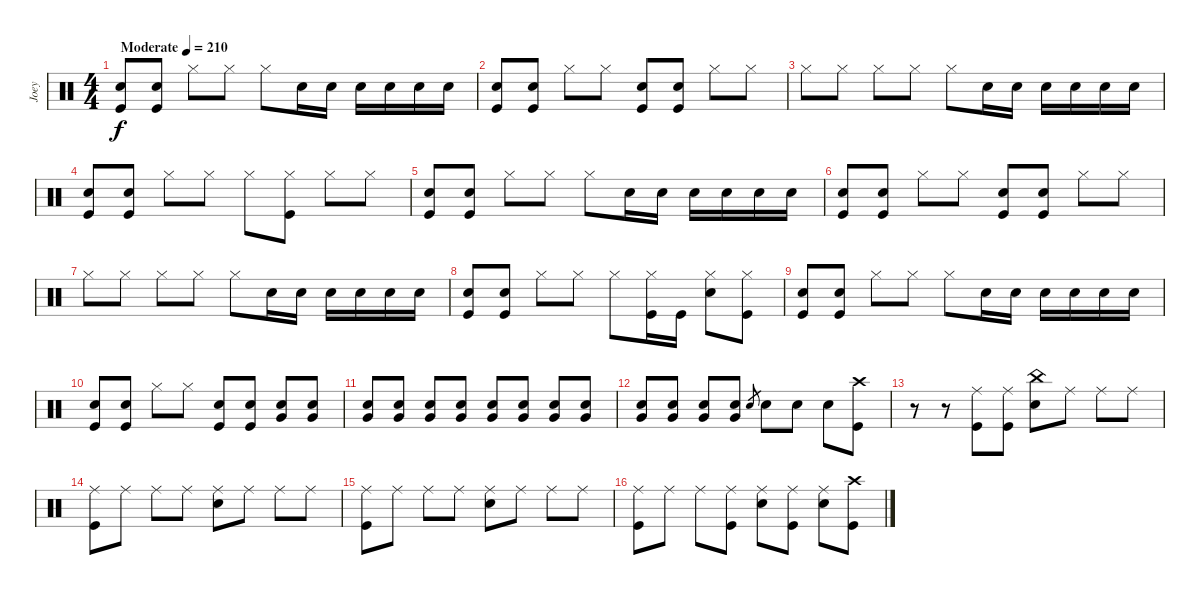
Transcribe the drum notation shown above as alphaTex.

\track ("Joey" "Joey") {instrument percussion}
\staff {score}
\articulation defaults
\ts (4 4)
\tempo (210 "Moderate")
\clef neutral
\ks c
("Snare (hit) 2" "Kick (hit)").8{dy f} ("Kick (hit)" "Snare (hit) 2").8 "Hi-Hat (closed)".8 "Hi-Hat (closed)".8 "Hi-Hat (closed)".8 "Snare (hit) 2".16 "Snare (hit) 2".16 "Snare (hit) 2".16 "Snare (hit) 2".16 "Snare (hit) 2".16 "Snare (hit) 2".16 |
("Snare (hit) 2" "Kick (hit)").8 ("Kick (hit)" "Snare (hit) 2").8 "Hi-Hat (closed)".8 "Hi-Hat (closed)".8 ("Snare (hit) 2" "Kick (hit)").8 ("Kick (hit)" "Snare (hit) 2").8 "Hi-Hat (closed)".8 "Hi-Hat (closed)".8 |
"Hi-Hat (closed)".8 "Hi-Hat (closed)".8 "Hi-Hat (closed)".8 "Hi-Hat (closed)".8 "Hi-Hat (closed)".8 "Snare (hit) 2".16 "Snare (hit) 2".16 "Snare (hit) 2".16 "Snare (hit) 2".16 "Snare (hit) 2".16 "Snare (hit) 2".16 |
("Snare (hit) 2" "Kick (hit)").8 ("Kick (hit)" "Snare (hit) 2").8 "Hi-Hat (closed)".8 "Hi-Hat (closed)".8 "Hi-Hat (closed)".8 ("Hi-Hat (closed)" "Kick (hit)").8 "Hi-Hat (closed)".8 "Hi-Hat (closed)".8 |
("Snare (hit) 2" "Kick (hit)").8 ("Kick (hit)" "Snare (hit) 2").8 "Hi-Hat (closed)".8 "Hi-Hat (closed)".8 "Hi-Hat (closed)".8 "Snare (hit) 2".16 "Snare (hit) 2".16 "Snare (hit) 2".16 "Snare (hit) 2".16 "Snare (hit) 2".16 "Snare (hit) 2".16 |
("Snare (hit) 2" "Kick (hit)").8 ("Kick (hit)" "Snare (hit) 2").8 "Hi-Hat (closed)".8 "Hi-Hat (closed)".8 ("Snare (hit) 2" "Kick (hit)").8 ("Kick (hit)" "Snare (hit) 2").8 "Hi-Hat (closed)".8 "Hi-Hat (closed)".8 |
"Hi-Hat (closed)".8 "Hi-Hat (closed)".8 "Hi-Hat (closed)".8 "Hi-Hat (closed)".8 "Hi-Hat (closed)".8 "Snare (hit) 2".16 "Snare (hit) 2".16 "Snare (hit) 2".16 "Snare (hit) 2".16 "Snare (hit) 2".16 "Snare (hit) 2".16 |
("Snare (hit) 2" "Kick (hit)").8 ("Kick (hit)" "Snare (hit) 2").8 "Hi-Hat (closed)".8 "Hi-Hat (closed)".8 "Hi-Hat (closed)".8 ("Hi-Hat (closed)" "Kick (hit)").16 "Kick (hit)".16 ("Hi-Hat (closed)" "Snare (hit) 2").8 ("Kick (hit)" "Hi-Hat (closed)").8 |
("Snare (hit) 2" "Kick (hit)").8 ("Kick (hit)" "Snare (hit) 2").8 "Hi-Hat (closed)".8 "Hi-Hat (closed)".8 "Hi-Hat (closed)".8 "Snare (hit) 2".16 "Snare (hit) 2".16 "Snare (hit) 2".16 "Snare (hit) 2".16 "Snare (hit) 2".16 "Snare (hit) 2".16 |
("Snare (hit) 2" "Kick (hit)").8 ("Kick (hit)" "Snare (hit) 2").8 "Hi-Hat (closed)".8 "Hi-Hat (closed)".8 ("Snare (hit) 2" "Kick (hit)").8 ("Kick (hit)" "Snare (hit) 2").8 ("Very Low Tom (hit)" "Snare (hit) 2").8{volume 5} ("Very Low Tom (hit)" "Snare (hit) 2").8{volume 13} |
("Very Low Tom (hit)" "Snare (hit) 2").8 ("Very Low Tom (hit)" "Snare (hit) 2").8 ("Very Low Tom (hit)" "Snare (hit) 2").8 ("Very Low Tom (hit)" "Snare (hit) 2").8 ("Very Low Tom (hit)" "Snare (hit) 2").8 ("Very Low Tom (hit)" "Snare (hit) 2").8 ("Snare (hit) 2" "Very Low Tom (hit)").8 ("Very Low Tom (hit)" "Snare (hit) 2").8 |
("Very Low Tom (hit)" "Snare (hit) 2").8 ("Very Low Tom (hit)" "Snare (hit) 2").8 ("Very Low Tom (hit)" "Snare (hit) 2").8 ("Very Low Tom (hit)" "Snare (hit) 2").8 "Snare (hit) 2".8{gr} "Snare (hit) 2".8 "Snare (hit) 2".8 "Snare (hit) 2".8 ("Crash high (hit)" "Kick (hit)").8 |
r.8 r.8 ("Kick (hit)" "Ride (middle)").8 ("Kick (hit)" "Ride (middle)").8 ("Snare (hit) 2" "China (hit)").8 "Ride (middle)".8 "Ride (middle)".8 "Ride (middle)".8 |
("Ride (middle)" "Kick (hit)").8 "Ride (middle)".8 "Ride (middle)".8 "Ride (middle)".8 ("Ride (middle)" "Snare (hit) 2").8 "Ride (middle)".8 "Ride (middle)".8 "Ride (middle)".8 |
("Ride (middle)" "Kick (hit)").8 "Ride (middle)".8 "Ride (middle)".8 "Ride (middle)".8 ("Ride (middle)" "Snare (hit) 2").8 "Ride (middle)".8 "Ride (middle)".8 "Ride (middle)".8 |
("Ride (middle)" "Kick (hit)").8 "Ride (middle)".8 "Ride (middle)".8 ("Ride (middle)" "Kick (hit)").8 ("Ride (middle)" "Snare (hit) 2").8 ("Ride (middle)" "Kick (hit)").8 ("Ride (middle)" "Snare (hit) 2").8 ("Crash high (hit)" "Kick (hit)").8
